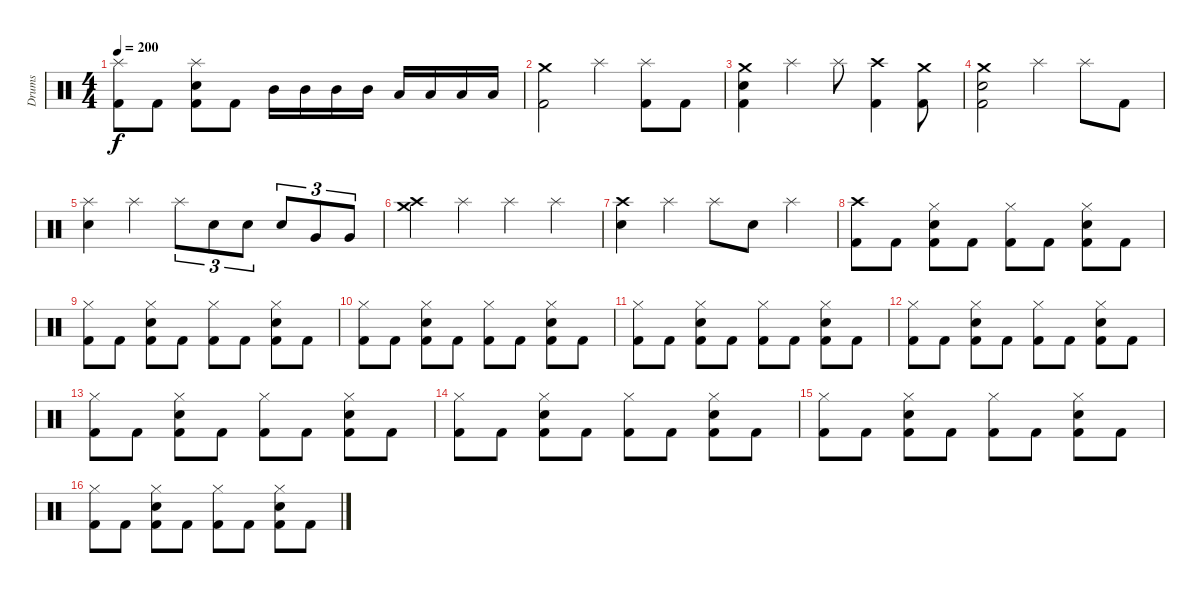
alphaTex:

\track ("Drums" "Drums") {instrument percussion}
\staff {score}
\articulation defaults
\ts (4 4)
\tempo 200
\clef neutral
\ks c
("Splash (hit)" "Kick (hit) 2").8{dy f} "Kick (hit) 2".8 ("Splash (hit)" "Snare (hit) 2" "Kick (hit) 2").8 "Kick (hit) 2".8 "Mid Tom (hit)".16 "Mid Tom (hit)".16 "Mid Tom (hit)".16 "Mid Tom (hit)".16 "Low Tom (hit)".16 "Low Tom (hit)".16 "Low Tom (hit)".16 "Low Tom (hit)".16 |
("Crash medium (hit)" "Kick (hit) 2").2 "Splash (hit)".4 ("Splash (hit)" "Kick (hit) 2").8 "Kick (hit) 2".8 |
("Crash medium (hit)" "Snare (hit) 2" "Kick (hit) 2").4 "Splash (hit)".4 "Splash (hit)".8 ("Crash high (hit)" "Kick (hit) 2").4 ("Crash medium (hit)" "Kick (hit) 2").8 |
("Crash medium (hit)" "Snare (hit) 2" "Kick (hit) 2").2 "Splash (hit)".4 "Splash (hit)".8 "Kick (hit) 2".8 |
("Splash (hit)" "Snare (hit) 2").4 "Splash (hit)".4 "Splash (hit)".8{tu (3 2)} "Snare (hit) 2".8{tu (3 2)} "Snare (hit) 2".8{tu (3 2)} "Snare (hit) 2".8{tu (3 2)} "Very Low Tom (hit)".8{tu (3 2)} "Very Low Tom (hit)".8{tu (3 2)} |
("Crash high (hit)" "Crash medium (hit)").4 "Splash (hit)".4 "Splash (hit)".4 "Splash (hit)".4 |
("Crash high (hit)" "Snare (hit) 2").4 "Splash (hit)".4 "Splash (hit)".8 "Snare (hit) 2".8 "Splash (hit)".4 |
("Crash high (hit)" "Kick (hit) 2").8 "Kick (hit) 2".8 ("Hi-Hat (closed)" "Snare (hit) 2" "Kick (hit) 2").8 "Kick (hit) 2".8 ("Hi-Hat (closed)" "Kick (hit) 2").8 "Kick (hit) 2".8 ("Hi-Hat (closed)" "Snare (hit) 2" "Kick (hit) 2").8 "Kick (hit) 2".8 |
("Hi-Hat (closed)" "Kick (hit) 2").8 "Kick (hit) 2".8 ("Hi-Hat (closed)" "Snare (hit) 2" "Kick (hit) 2").8 "Kick (hit) 2".8 ("Hi-Hat (closed)" "Kick (hit) 2").8 "Kick (hit) 2".8 ("Hi-Hat (closed)" "Snare (hit) 2" "Kick (hit) 2").8 "Kick (hit) 2".8 |
("Hi-Hat (closed)" "Kick (hit) 2").8 "Kick (hit) 2".8 ("Hi-Hat (closed)" "Snare (hit) 2" "Kick (hit) 2").8 "Kick (hit) 2".8 ("Hi-Hat (closed)" "Kick (hit) 2").8 "Kick (hit) 2".8 ("Hi-Hat (closed)" "Snare (hit) 2" "Kick (hit) 2").8 "Kick (hit) 2".8 |
("Hi-Hat (closed)" "Kick (hit) 2").8 "Kick (hit) 2".8 ("Hi-Hat (closed)" "Snare (hit) 2" "Kick (hit) 2").8 "Kick (hit) 2".8 ("Hi-Hat (closed)" "Kick (hit) 2").8 "Kick (hit) 2".8 ("Hi-Hat (closed)" "Snare (hit) 2" "Kick (hit) 2").8 "Kick (hit) 2".8 |
("Hi-Hat (closed)" "Kick (hit) 2").8 "Kick (hit) 2".8 ("Hi-Hat (closed)" "Snare (hit) 2" "Kick (hit) 2").8 "Kick (hit) 2".8 ("Hi-Hat (closed)" "Kick (hit) 2").8 "Kick (hit) 2".8 ("Hi-Hat (closed)" "Snare (hit) 2" "Kick (hit) 2").8 "Kick (hit) 2".8 |
("Hi-Hat (closed)" "Kick (hit) 2").8 "Kick (hit) 2".8 ("Hi-Hat (closed)" "Snare (hit) 2" "Kick (hit) 2").8 "Kick (hit) 2".8 ("Hi-Hat (closed)" "Kick (hit) 2").8 "Kick (hit) 2".8 ("Hi-Hat (closed)" "Snare (hit) 2" "Kick (hit) 2").8 "Kick (hit) 2".8 |
("Hi-Hat (closed)" "Kick (hit) 2").8 "Kick (hit) 2".8 ("Hi-Hat (closed)" "Snare (hit) 2" "Kick (hit) 2").8 "Kick (hit) 2".8 ("Hi-Hat (closed)" "Kick (hit) 2").8 "Kick (hit) 2".8 ("Hi-Hat (closed)" "Snare (hit) 2" "Kick (hit) 2").8 "Kick (hit) 2".8 |
("Hi-Hat (closed)" "Kick (hit) 2").8 "Kick (hit) 2".8 ("Hi-Hat (closed)" "Snare (hit) 2" "Kick (hit) 2").8 "Kick (hit) 2".8 ("Hi-Hat (closed)" "Kick (hit) 2").8 "Kick (hit) 2".8 ("Hi-Hat (closed)" "Snare (hit) 2" "Kick (hit) 2").8 "Kick (hit) 2".8 |
("Hi-Hat (closed)" "Kick (hit) 2").8 "Kick (hit) 2".8 ("Hi-Hat (closed)" "Snare (hit) 2" "Kick (hit) 2").8 "Kick (hit) 2".8 ("Hi-Hat (closed)" "Kick (hit) 2").8 "Kick (hit) 2".8 ("Hi-Hat (closed)" "Snare (hit) 2" "Kick (hit) 2").8 "Kick (hit) 2".8
